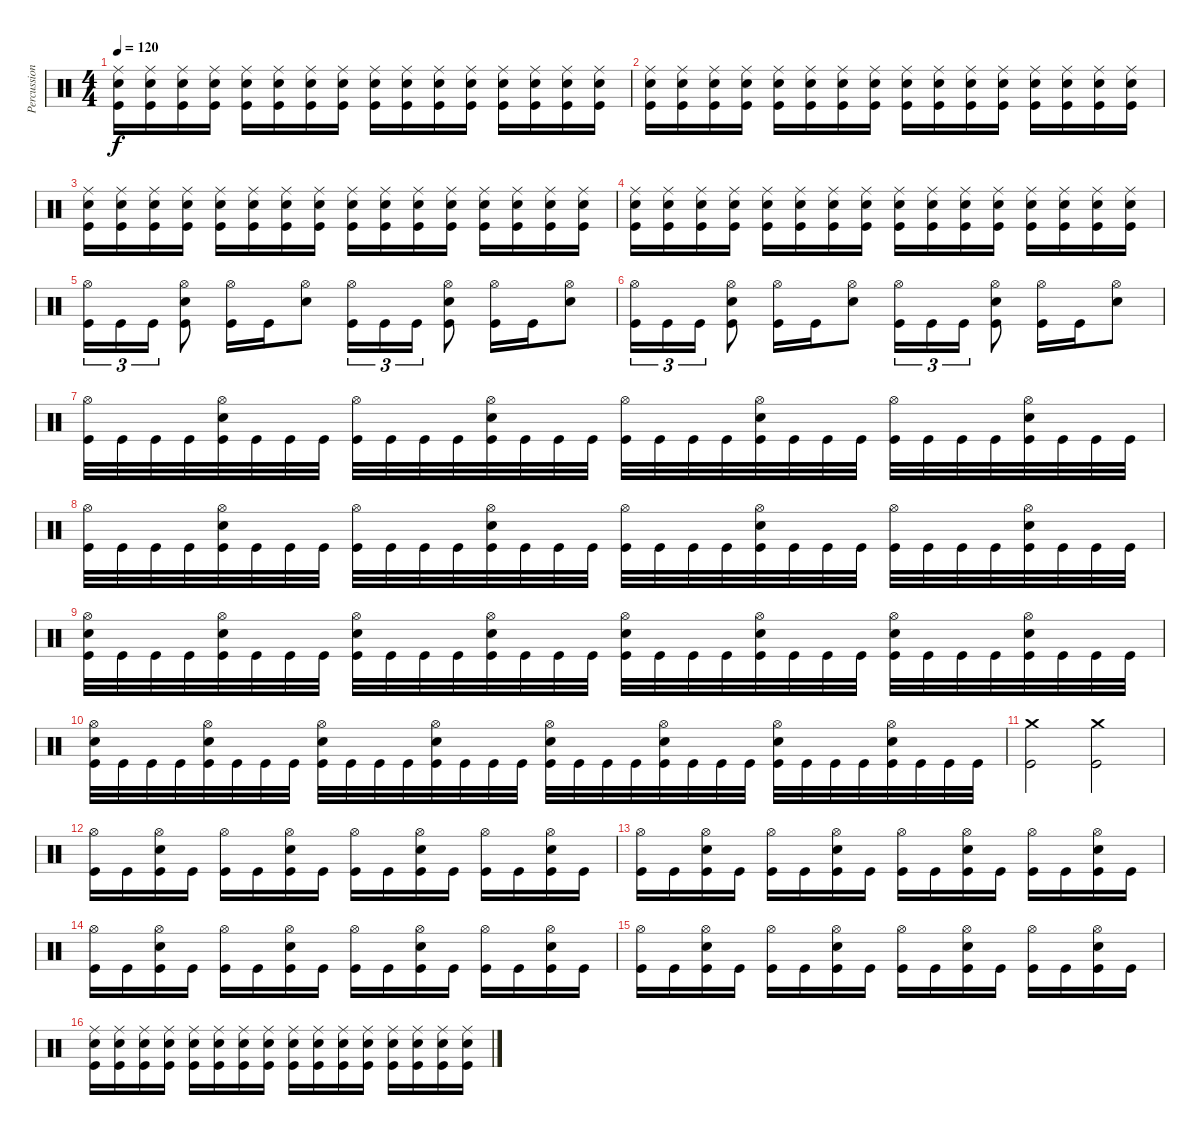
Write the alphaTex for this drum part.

\track ("Percussion" "Percussion") {instrument percussion}
\staff {score}
\articulation defaults
\ts (4 4)
\tempo 120
\clef neutral
\ks c
("Ride (middle)" "Snare (hit) 2" "Kick (hit)").16{dy f} ("Ride (middle)" "Snare (hit) 2" "Kick (hit)").16 ("Ride (middle)" "Snare (hit) 2" "Kick (hit)").16 ("Ride (middle)" "Snare (hit) 2" "Kick (hit)").16 ("Ride (middle)" "Snare (hit) 2" "Kick (hit)").16 ("Ride (middle)" "Snare (hit) 2" "Kick (hit)").16 ("Ride (middle)" "Snare (hit) 2" "Kick (hit)").16 ("Ride (middle)" "Snare (hit) 2" "Kick (hit)").16 ("Ride (middle)" "Snare (hit) 2" "Kick (hit)").16 ("Ride (middle)" "Snare (hit) 2" "Kick (hit)").16 ("Ride (middle)" "Snare (hit) 2" "Kick (hit)").16 ("Ride (middle)" "Snare (hit) 2" "Kick (hit)").16 ("Ride (middle)" "Snare (hit) 2" "Kick (hit)").16 ("Ride (middle)" "Snare (hit) 2" "Kick (hit)").16 ("Ride (middle)" "Snare (hit) 2" "Kick (hit)").16 ("Ride (middle)" "Snare (hit) 2" "Kick (hit)").16 |
("Ride (middle)" "Snare (hit) 2" "Kick (hit)").16 ("Ride (middle)" "Snare (hit) 2" "Kick (hit)").16 ("Ride (middle)" "Snare (hit) 2" "Kick (hit)").16 ("Ride (middle)" "Snare (hit) 2" "Kick (hit)").16 ("Ride (middle)" "Snare (hit) 2" "Kick (hit)").16 ("Ride (middle)" "Snare (hit) 2" "Kick (hit)").16 ("Ride (middle)" "Snare (hit) 2" "Kick (hit)").16 ("Ride (middle)" "Snare (hit) 2" "Kick (hit)").16 ("Ride (middle)" "Snare (hit) 2" "Kick (hit)").16 ("Ride (middle)" "Snare (hit) 2" "Kick (hit)").16 ("Ride (middle)" "Snare (hit) 2" "Kick (hit)").16 ("Ride (middle)" "Snare (hit) 2" "Kick (hit)").16 ("Ride (middle)" "Snare (hit) 2" "Kick (hit)").16 ("Ride (middle)" "Snare (hit) 2" "Kick (hit)").16 ("Ride (middle)" "Snare (hit) 2" "Kick (hit)").16 ("Ride (middle)" "Snare (hit) 2" "Kick (hit)").16 |
("Ride (middle)" "Snare (hit) 2" "Kick (hit)").16 ("Ride (middle)" "Snare (hit) 2" "Kick (hit)").16 ("Ride (middle)" "Snare (hit) 2" "Kick (hit)").16 ("Ride (middle)" "Snare (hit) 2" "Kick (hit)").16 ("Ride (middle)" "Snare (hit) 2" "Kick (hit)").16 ("Ride (middle)" "Snare (hit) 2" "Kick (hit)").16 ("Ride (middle)" "Snare (hit) 2" "Kick (hit)").16 ("Ride (middle)" "Snare (hit) 2" "Kick (hit)").16 ("Ride (middle)" "Snare (hit) 2" "Kick (hit)").16 ("Ride (middle)" "Snare (hit) 2" "Kick (hit)").16 ("Ride (middle)" "Snare (hit) 2" "Kick (hit)").16 ("Ride (middle)" "Snare (hit) 2" "Kick (hit)").16 ("Ride (middle)" "Snare (hit) 2" "Kick (hit)").16 ("Ride (middle)" "Snare (hit) 2" "Kick (hit)").16 ("Ride (middle)" "Snare (hit) 2" "Kick (hit)").16 ("Ride (middle)" "Snare (hit) 2" "Kick (hit)").16 |
("Ride (middle)" "Snare (hit) 2" "Kick (hit)").16 ("Ride (middle)" "Snare (hit) 2" "Kick (hit)").16 ("Ride (middle)" "Snare (hit) 2" "Kick (hit)").16 ("Ride (middle)" "Snare (hit) 2" "Kick (hit)").16 ("Ride (middle)" "Snare (hit) 2" "Kick (hit)").16 ("Ride (middle)" "Snare (hit) 2" "Kick (hit)").16 ("Ride (middle)" "Snare (hit) 2" "Kick (hit)").16 ("Ride (middle)" "Snare (hit) 2" "Kick (hit)").16 ("Ride (middle)" "Snare (hit) 2" "Kick (hit)").16 ("Ride (middle)" "Snare (hit) 2" "Kick (hit)").16 ("Ride (middle)" "Snare (hit) 2" "Kick (hit)").16 ("Ride (middle)" "Snare (hit) 2" "Kick (hit)").16 ("Ride (middle)" "Snare (hit) 2" "Kick (hit)").16 ("Ride (middle)" "Snare (hit) 2" "Kick (hit)").16 ("Ride (middle)" "Snare (hit) 2" "Kick (hit)").16 ("Ride (middle)" "Snare (hit) 2" "Kick (hit)").16 |
("Hi-Hat (open)" "Kick (hit)").16{tu (3 2)} "Kick (hit)".16{tu (3 2)} "Kick (hit)".16{tu (3 2)} ("Hi-Hat (open)" "Snare (hit) 2" "Kick (hit)").8 ("Hi-Hat (open)" "Kick (hit)").16 "Kick (hit)".16 ("Hi-Hat (open)" "Snare (hit) 2").8 ("Hi-Hat (open)" "Kick (hit)").16{tu (3 2)} "Kick (hit)".16{tu (3 2)} "Kick (hit)".16{tu (3 2)} ("Hi-Hat (open)" "Snare (hit) 2" "Kick (hit)").8 ("Hi-Hat (open)" "Kick (hit)").16 "Kick (hit)".16 ("Hi-Hat (open)" "Snare (hit) 2").8 |
("Hi-Hat (open)" "Kick (hit)").16{tu (3 2)} "Kick (hit)".16{tu (3 2)} "Kick (hit)".16{tu (3 2)} ("Hi-Hat (open)" "Snare (hit) 2" "Kick (hit)").8 ("Hi-Hat (open)" "Kick (hit)").16 "Kick (hit)".16 ("Hi-Hat (open)" "Snare (hit) 2").8 ("Hi-Hat (open)" "Kick (hit)").16{tu (3 2)} "Kick (hit)".16{tu (3 2)} "Kick (hit)".16{tu (3 2)} ("Hi-Hat (open)" "Snare (hit) 2" "Kick (hit)").8 ("Hi-Hat (open)" "Kick (hit)").16 "Kick (hit)".16 ("Hi-Hat (open)" "Snare (hit) 2").8 |
("Hi-Hat (open)" "Kick (hit)").32 "Kick (hit)".32 "Kick (hit)".32 "Kick (hit)".32 ("Hi-Hat (open)" "Snare (hit) 2" "Kick (hit)").32 "Kick (hit)".32 "Kick (hit)".32 "Kick (hit)".32 ("Hi-Hat (open)" "Kick (hit)").32 "Kick (hit)".32 "Kick (hit)".32 "Kick (hit)".32 ("Hi-Hat (open)" "Snare (hit) 2" "Kick (hit)").32 "Kick (hit)".32 "Kick (hit)".32 "Kick (hit)".32 ("Hi-Hat (open)" "Kick (hit)").32 "Kick (hit)".32 "Kick (hit)".32 "Kick (hit)".32 ("Hi-Hat (open)" "Snare (hit) 2" "Kick (hit)").32 "Kick (hit)".32 "Kick (hit)".32 "Kick (hit)".32 ("Hi-Hat (open)" "Kick (hit)").32 "Kick (hit)".32 "Kick (hit)".32 "Kick (hit)".32 ("Hi-Hat (open)" "Snare (hit) 2" "Kick (hit)").32 "Kick (hit)".32 "Kick (hit)".32 "Kick (hit)".32 |
("Hi-Hat (open)" "Kick (hit)").32 "Kick (hit)".32 "Kick (hit)".32 "Kick (hit)".32 ("Hi-Hat (open)" "Snare (hit) 2" "Kick (hit)").32 "Kick (hit)".32 "Kick (hit)".32 "Kick (hit)".32 ("Hi-Hat (open)" "Kick (hit)").32 "Kick (hit)".32 "Kick (hit)".32 "Kick (hit)".32 ("Hi-Hat (open)" "Snare (hit) 2" "Kick (hit)").32 "Kick (hit)".32 "Kick (hit)".32 "Kick (hit)".32 ("Hi-Hat (open)" "Kick (hit)").32 "Kick (hit)".32 "Kick (hit)".32 "Kick (hit)".32 ("Hi-Hat (open)" "Snare (hit) 2" "Kick (hit)").32 "Kick (hit)".32 "Kick (hit)".32 "Kick (hit)".32 ("Hi-Hat (open)" "Kick (hit)").32 "Kick (hit)".32 "Kick (hit)".32 "Kick (hit)".32 ("Hi-Hat (open)" "Snare (hit) 2" "Kick (hit)").32 "Kick (hit)".32 "Kick (hit)".32 "Kick (hit)".32 |
("Hi-Hat (open)" "Snare (hit) 2" "Kick (hit)").32 "Kick (hit)".32 "Kick (hit)".32 "Kick (hit)".32 ("Hi-Hat (open)" "Snare (hit) 2" "Kick (hit)").32 "Kick (hit)".32 "Kick (hit)".32 "Kick (hit)".32 ("Hi-Hat (open)" "Snare (hit) 2" "Kick (hit)").32 "Kick (hit)".32 "Kick (hit)".32 "Kick (hit)".32 ("Hi-Hat (open)" "Snare (hit) 2" "Kick (hit)").32 "Kick (hit)".32 "Kick (hit)".32 "Kick (hit)".32 ("Hi-Hat (open)" "Snare (hit) 2" "Kick (hit)").32 "Kick (hit)".32 "Kick (hit)".32 "Kick (hit)".32 ("Hi-Hat (open)" "Snare (hit) 2" "Kick (hit)").32 "Kick (hit)".32 "Kick (hit)".32 "Kick (hit)".32 ("Hi-Hat (open)" "Snare (hit) 2" "Kick (hit)").32 "Kick (hit)".32 "Kick (hit)".32 "Kick (hit)".32 ("Hi-Hat (open)" "Snare (hit) 2" "Kick (hit)").32 "Kick (hit)".32 "Kick (hit)".32 "Kick (hit)".32 |
("Hi-Hat (open)" "Snare (hit) 2" "Kick (hit)").32 "Kick (hit)".32 "Kick (hit)".32 "Kick (hit)".32 ("Hi-Hat (open)" "Snare (hit) 2" "Kick (hit)").32 "Kick (hit)".32 "Kick (hit)".32 "Kick (hit)".32 ("Hi-Hat (open)" "Snare (hit) 2" "Kick (hit)").32 "Kick (hit)".32 "Kick (hit)".32 "Kick (hit)".32 ("Hi-Hat (open)" "Snare (hit) 2" "Kick (hit)").32 "Kick (hit)".32 "Kick (hit)".32 "Kick (hit)".32 ("Hi-Hat (open)" "Snare (hit) 2" "Kick (hit)").32 "Kick (hit)".32 "Kick (hit)".32 "Kick (hit)".32 ("Hi-Hat (open)" "Snare (hit) 2" "Kick (hit)").32 "Kick (hit)".32 "Kick (hit)".32 "Kick (hit)".32 ("Hi-Hat (open)" "Snare (hit) 2" "Kick (hit)").32 "Kick (hit)".32 "Kick (hit)".32 "Kick (hit)".32 ("Hi-Hat (open)" "Snare (hit) 2" "Kick (hit)").32 "Kick (hit)".32 "Kick (hit)".32 "Kick (hit)".32 |
("Crash medium (hit)" "Kick (hit)").2 ("Crash medium (hit)" "Kick (hit)").2 |
("Hi-Hat (open)" "Kick (hit)").16 "Kick (hit)".16 ("Hi-Hat (open)" "Snare (hit) 2" "Kick (hit)").16 "Kick (hit)".16 ("Hi-Hat (open)" "Kick (hit)").16 "Kick (hit)".16 ("Hi-Hat (open)" "Snare (hit) 2" "Kick (hit)").16 "Kick (hit)".16 ("Hi-Hat (open)" "Kick (hit)").16 "Kick (hit)".16 ("Hi-Hat (open)" "Snare (hit) 2" "Kick (hit)").16 "Kick (hit)".16 ("Hi-Hat (open)" "Kick (hit)").16 "Kick (hit)".16 ("Hi-Hat (open)" "Snare (hit) 2" "Kick (hit)").16 "Kick (hit)".16 |
("Hi-Hat (open)" "Kick (hit)").16 "Kick (hit)".16 ("Hi-Hat (open)" "Snare (hit) 2" "Kick (hit)").16 "Kick (hit)".16 ("Hi-Hat (open)" "Kick (hit)").16 "Kick (hit)".16 ("Hi-Hat (open)" "Snare (hit) 2" "Kick (hit)").16 "Kick (hit)".16 ("Hi-Hat (open)" "Kick (hit)").16 "Kick (hit)".16 ("Hi-Hat (open)" "Snare (hit) 2" "Kick (hit)").16 "Kick (hit)".16 ("Hi-Hat (open)" "Kick (hit)").16 "Kick (hit)".16 ("Hi-Hat (open)" "Snare (hit) 2" "Kick (hit)").16 "Kick (hit)".16 |
("Hi-Hat (open)" "Kick (hit)").16 "Kick (hit)".16 ("Hi-Hat (open)" "Snare (hit) 2" "Kick (hit)").16 "Kick (hit)".16 ("Hi-Hat (open)" "Kick (hit)").16 "Kick (hit)".16 ("Hi-Hat (open)" "Snare (hit) 2" "Kick (hit)").16 "Kick (hit)".16 ("Hi-Hat (open)" "Kick (hit)").16 "Kick (hit)".16 ("Hi-Hat (open)" "Snare (hit) 2" "Kick (hit)").16 "Kick (hit)".16 ("Hi-Hat (open)" "Kick (hit)").16 "Kick (hit)".16 ("Hi-Hat (open)" "Snare (hit) 2" "Kick (hit)").16 "Kick (hit)".16 |
("Hi-Hat (open)" "Kick (hit)").16 "Kick (hit)".16 ("Hi-Hat (open)" "Snare (hit) 2" "Kick (hit)").16 "Kick (hit)".16 ("Hi-Hat (open)" "Kick (hit)").16 "Kick (hit)".16 ("Hi-Hat (open)" "Snare (hit) 2" "Kick (hit)").16 "Kick (hit)".16 ("Hi-Hat (open)" "Kick (hit)").16 "Kick (hit)".16 ("Hi-Hat (open)" "Snare (hit) 2" "Kick (hit)").16 "Kick (hit)".16 ("Hi-Hat (open)" "Kick (hit)").16 "Kick (hit)".16 ("Hi-Hat (open)" "Snare (hit) 2" "Kick (hit)").16 "Kick (hit)".16 |
("Ride (middle)" "Snare (hit) 2" "Kick (hit)").16 ("Ride (middle)" "Snare (hit) 2" "Kick (hit)").16 ("Ride (middle)" "Snare (hit) 2" "Kick (hit)").16 ("Ride (middle)" "Snare (hit) 2" "Kick (hit)").16 ("Ride (middle)" "Snare (hit) 2" "Kick (hit)").16 ("Ride (middle)" "Snare (hit) 2" "Kick (hit)").16 ("Ride (middle)" "Snare (hit) 2" "Kick (hit)").16 ("Ride (middle)" "Snare (hit) 2" "Kick (hit)").16 ("Ride (middle)" "Snare (hit) 2" "Kick (hit)").16 ("Ride (middle)" "Snare (hit) 2" "Kick (hit)").16 ("Ride (middle)" "Snare (hit) 2" "Kick (hit)").16 ("Ride (middle)" "Snare (hit) 2" "Kick (hit)").16 ("Ride (middle)" "Snare (hit) 2" "Kick (hit)").16 ("Ride (middle)" "Snare (hit) 2" "Kick (hit)").16 ("Ride (middle)" "Snare (hit) 2" "Kick (hit)").16 ("Ride (middle)" "Snare (hit) 2" "Kick (hit)").16
